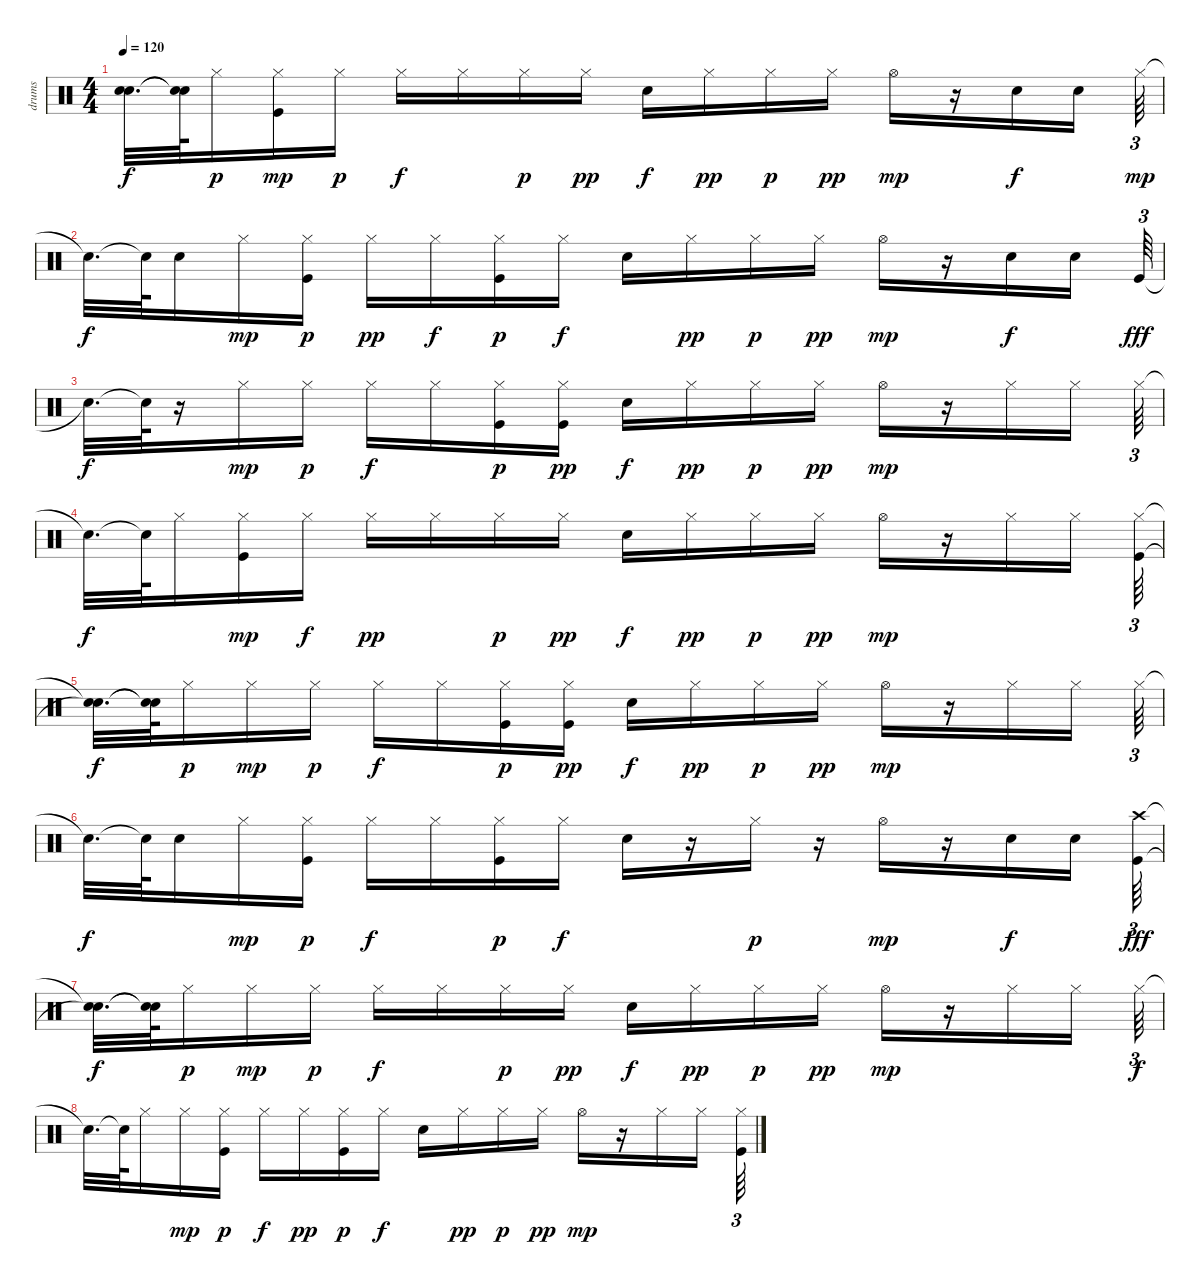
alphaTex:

\track ("drums" "drums") {instrument percussion}
\staff {score}
\articulation defaults
\ts (4 4)
\tempo 120
\clef neutral
\ks c
("Snare (hit)"{t} "Snare (hit)"{t}).32{d dy f} ("Snare (hit)"{t} "Snare (hit)"{t}).64 "Hi-Hat (closed)".16{dy p} ("Kick (hit)" "Hi-Hat (closed)").16{dy mp} "Hi-Hat (closed)".16{dy p} "Hi-Hat (closed)".16{dy f} "Hi-Hat (closed)".16 "Hi-Hat (closed)".16{dy p} "Hi-Hat (closed)".16{dy pp} "Snare (hit) 2".16{dy f} "Hi-Hat (closed)".16{dy pp} "Hi-Hat (closed)".16{dy p} "Hi-Hat (closed)".16{dy pp} "Hi-Hat (open)".16{dy mp} r.16 "Snare (hit) 2".16{dy f} "Snare (hit) 2".16 "Hi-Hat (closed)".64{tu (3 2) dy mp} |
"Snare (hit)"{t}.32{d dy f} "Snare (hit)"{t}.64 "Snare (hit) 2".16 "Hi-Hat (closed)".16{dy mp} ("Kick (hit)" "Hi-Hat (closed)").16{dy p} "Hi-Hat (closed)".16{dy pp} "Hi-Hat (closed)".16{dy f} ("Kick (hit)" "Hi-Hat (closed)").16{dy p} "Hi-Hat (closed)".16{dy f} "Snare (hit) 2".16 "Hi-Hat (closed)".16{dy pp} "Hi-Hat (closed)".16{dy p} "Hi-Hat (closed)".16{dy pp} "Hi-Hat (open)".16{dy mp} r.16 "Snare (hit) 2".16{dy f} "Snare (hit) 2".16 "Kick (hit)".64{tu (3 2) dy fff} |
"Snare (hit)"{t}.32{d dy f} "Snare (hit)"{t}.64 r.16 "Hi-Hat (closed)".16{dy mp} "Hi-Hat (closed)".16{dy p} "Hi-Hat (closed)".16{dy f} "Hi-Hat (closed)".16 ("Kick (hit)" "Hi-Hat (closed)").16{dy p} ("Kick (hit)" "Hi-Hat (closed)").16{dy pp} "Snare (hit) 2".16{dy f} "Hi-Hat (closed)".16{dy pp} "Hi-Hat (closed)".16{dy p} "Hi-Hat (closed)".16{dy pp} "Hi-Hat (open)".16{dy mp} r.16 "Hi-Hat (closed)".16 "Hi-Hat (closed)".16 "Hi-Hat (closed)".64{tu (3 2)} |
"Snare (hit)"{t}.32{d dy f} "Snare (hit)"{t}.64 "Hi-Hat (closed)".16 ("Kick (hit)" "Hi-Hat (closed)").16{dy mp} "Hi-Hat (closed)".16{dy f} "Hi-Hat (closed)".16{dy pp} "Hi-Hat (closed)".16 "Hi-Hat (closed)".16{dy p} "Hi-Hat (closed)".16{dy pp} "Snare (hit) 2".16{dy f} "Hi-Hat (closed)".16{dy pp} "Hi-Hat (closed)".16{dy p} "Hi-Hat (closed)".16{dy pp} "Hi-Hat (open)".16{dy mp} r.16 "Hi-Hat (closed)".16 "Hi-Hat (closed)".16 ("Kick (hit)" "Hi-Hat (closed)").64{tu (3 2)} |
("Snare (hit)"{t} "Snare (hit)"{t}).32{d dy f} ("Snare (hit)"{t} "Snare (hit)"{t}).64 "Hi-Hat (closed)".16{dy p} "Hi-Hat (closed)".16{dy mp} "Hi-Hat (closed)".16{dy p} "Hi-Hat (closed)".16{dy f} "Hi-Hat (closed)".16 ("Kick (hit)" "Hi-Hat (closed)").16{dy p} ("Kick (hit)" "Hi-Hat (closed)").16{dy pp} "Snare (hit) 2".16{dy f} "Hi-Hat (closed)".16{dy pp} "Hi-Hat (closed)".16{dy p} "Hi-Hat (closed)".16{dy pp} "Hi-Hat (open)".16{dy mp} r.16 "Hi-Hat (closed)".16 "Hi-Hat (closed)".16 "Hi-Hat (closed)".64{tu (3 2)} |
"Snare (hit)"{t}.32{d dy f} "Snare (hit)"{t}.64 "Snare (hit) 2".16 "Hi-Hat (closed)".16{dy mp} ("Kick (hit)" "Hi-Hat (closed)").16{dy p} "Hi-Hat (closed)".16{dy f} "Hi-Hat (closed)".16 ("Kick (hit)" "Hi-Hat (closed)").16{dy p} "Hi-Hat (closed)".16{dy f} "Snare (hit) 2".16 r.16 "Hi-Hat (closed)".16{dy p} r.16 "Hi-Hat (open)".16{dy mp} r.16 "Snare (hit) 2".16{dy f} "Snare (hit) 2".16 ("Kick (hit)" "Crash high (hit)").64{tu (3 2) dy fff} |
("Snare (hit)"{t} "Snare (hit)"{t}).32{d dy f} ("Snare (hit)"{t} "Snare (hit)"{t}).64 "Hi-Hat (closed)".16{dy p} "Hi-Hat (closed)".16{dy mp} "Hi-Hat (closed)".16{dy p} "Hi-Hat (closed)".16{dy f} "Hi-Hat (closed)".16 "Hi-Hat (closed)".16{dy p} "Hi-Hat (closed)".16{dy pp} "Snare (hit) 2".16{dy f} "Hi-Hat (closed)".16{dy pp} "Hi-Hat (closed)".16{dy p} "Hi-Hat (closed)".16{dy pp} "Hi-Hat (open)".16{dy mp} r.16 "Hi-Hat (closed)".16 "Hi-Hat (closed)".16 "Hi-Hat (closed)".64{tu (3 2) dy f} |
"Snare (hit)"{t}.32{d} "Snare (hit)"{t}.64 "Hi-Hat (closed)".16 "Hi-Hat (closed)".16{dy mp} ("Kick (hit)" "Hi-Hat (closed)").16{dy p} "Hi-Hat (closed)".16{dy f} "Hi-Hat (closed)".16{dy pp} ("Kick (hit)" "Hi-Hat (closed)").16{dy p} "Hi-Hat (closed)".16{dy f} "Snare (hit) 2".16 "Hi-Hat (closed)".16{dy pp} "Hi-Hat (closed)".16{dy p} "Hi-Hat (closed)".16{dy pp} "Hi-Hat (open)".16{dy mp} r.16 "Hi-Hat (closed)".16 "Hi-Hat (closed)".16 ("Kick (hit)" "Hi-Hat (closed)").64{tu (3 2)}
